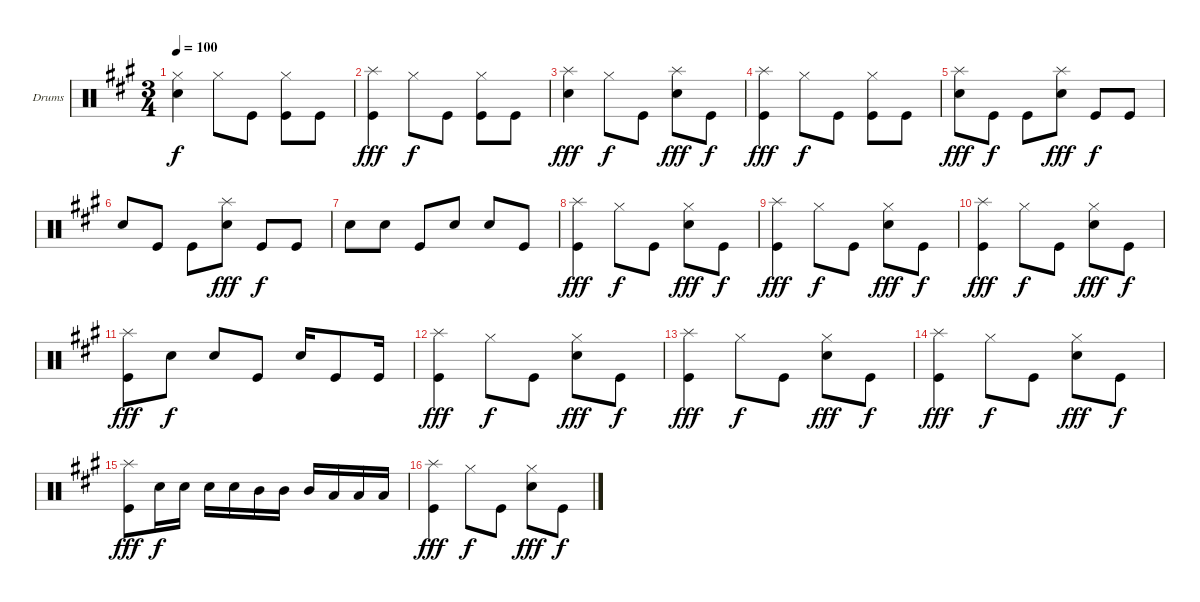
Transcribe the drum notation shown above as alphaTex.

\bracketExtendMode groupsimilarinstruments
\firstSystemTrackNameOrientation horizontal
\otherSystemsTrackNameOrientation horizontal
\track ("Drumkit" "Drums") {instrument percussion}
\staff {score}
\articulation defaults
\ts (3 4)
\tempo 100
\clef neutral
\scale
1.05801
\ks a
("Hi-Hat (closed)" "Snare (hit) 2").4{dy f} "Hi-Hat (closed)".8 "Kick (hit)".8 ("Hi-Hat (closed)" "Kick (hit)").8 "Kick (hit)".8 |
\scale
0.941992 ("Splash (hit)" "Kick (hit)").4{dy fff} "Hi-Hat (closed)".8{dy f} "Kick (hit)".8 ("Hi-Hat (closed)" "Kick (hit)").8 "Kick (hit)".8 |
\scale
1.05801 ("Splash (hit)" "Snare (hit) 2").4{dy fff} "Hi-Hat (closed)".8{dy f} "Kick (hit)".8 ("Splash (hit)" "Snare (hit) 2").8{dy fff} "Kick (hit)".8{dy f} |
\scale
0.941992 ("Splash (hit)" "Kick (hit)").4{dy fff} "Hi-Hat (closed)".8{dy f} "Kick (hit)".8 ("Hi-Hat (closed)" "Kick (hit)").8 "Kick (hit)".8 |
\scale
1.05801 ("Splash (hit)" "Snare (hit) 2").8{dy fff} "Kick (hit)".8{dy f} "Kick (hit)".8 ("Splash (hit)" "Snare (hit) 2").8{dy fff} "Kick (hit)".8{dy f} "Kick (hit)".8 |
\scale
0.941992 "Snare (hit) 2".8 "Kick (hit)".8 "Kick (hit)".8 ("Splash (hit)" "Snare (hit) 2").8{dy fff} "Kick (hit)".8{dy f} "Kick (hit)".8 |
\scale
1.05801 "Snare (hit) 2".8 "Snare (hit) 2".8 "Kick (hit)".8 "Snare (hit) 2".8 "Snare (hit) 2".8 "Kick (hit)".8 |
\scale
0.941992 ("Splash (hit)" "Kick (hit)").4{dy fff} "Hi-Hat (closed)".8{dy f} "Kick (hit)".8 ("Hi-Hat (closed)" "Snare (hit) 2").8{dy fff} "Kick (hit)".8{dy f} |
\scale
1.05801 ("Splash (hit)" "Kick (hit)").4{dy fff} "Hi-Hat (closed)".8{dy f} "Kick (hit)".8 ("Hi-Hat (closed)" "Snare (hit) 2").8{dy fff} "Kick (hit)".8{dy f} |
\scale
0.941992 ("Splash (hit)" "Kick (hit)").4{dy fff} "Hi-Hat (closed)".8{dy f} "Kick (hit)".8 ("Hi-Hat (closed)" "Snare (hit) 2").8{dy fff} "Kick (hit)".8{dy f} |
\scale
1.05801 ("Splash (hit)" "Kick (hit)").8{dy fff} "Snare (hit) 2".8{dy f} "Snare (hit) 2".8 "Kick (hit)".8 "Snare (hit) 2".16 "Kick (hit)".8 "Kick (hit)".16 |
\scale
0.941992 ("Splash (hit)" "Kick (hit)").4{dy fff} "Hi-Hat (closed)".8{dy f} "Kick (hit)".8 ("Hi-Hat (closed)" "Snare (hit) 2").8{dy fff} "Kick (hit)".8{dy f} |
\scale
1.05801 ("Splash (hit)" "Kick (hit)").4{dy fff} "Hi-Hat (closed)".8{dy f} "Kick (hit)".8 ("Hi-Hat (closed)" "Snare (hit) 2").8{dy fff} "Kick (hit)".8{dy f} |
\scale
0.941992 ("Splash (hit)" "Kick (hit)").4{dy fff} "Hi-Hat (closed)".8{dy f} "Kick (hit)".8 ("Hi-Hat (closed)" "Snare (hit) 2").8{dy fff} "Kick (hit)".8{dy f} |
\scale
1.05801 ("Splash (hit)" "Kick (hit)").8{dy fff} "Snare (hit) 2".16{dy f} "Snare (hit) 2".16 "Snare (hit) 2".16 "Snare (hit) 2".16 "Mid Tom (hit)".16 "Mid Tom (hit)".16 "Mid Tom (hit)".16 "Low Tom (hit)".16 "Low Tom (hit)".16 "Low Tom (hit)".16 |
\scale
0.941992 ("Splash (hit)" "Kick (hit)").4{dy fff} "Hi-Hat (closed)".8{dy f} "Kick (hit)".8 ("Hi-Hat (closed)" "Snare (hit) 2").8{dy fff} "Kick (hit)".8{dy f}
